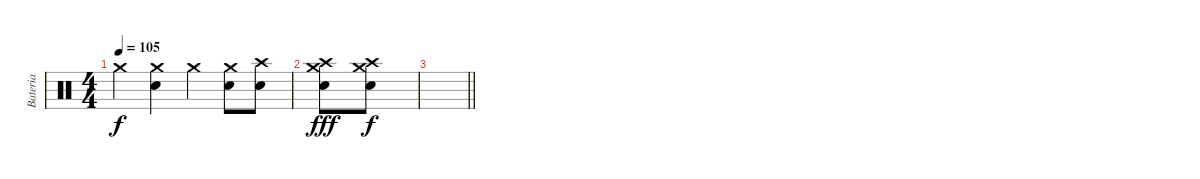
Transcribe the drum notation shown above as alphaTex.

\track ("Bateria" "Bateria") {instrument percussion}
\staff {score}
\articulation defaults
\ts (4 4)
\tempo 105
\clef neutral
\ks c "Crash medium (hit)".4{dy f}
("Crash medium (hit)" "Snare (hit) 2").4 "Crash medium (hit)".4 ("Crash medium (hit)" "Electric Snare (hit)").8 ("Crash high (hit)" "Snare (hit) 2").8 |
("Crash medium (hit)" "Crash high (hit)" "Snare (hit) 2").8{dy fff} ("Crash high (hit)" "Crash medium (hit)" "Snare (hit) 2").8{dy f} |
\barLineRight lightlight
